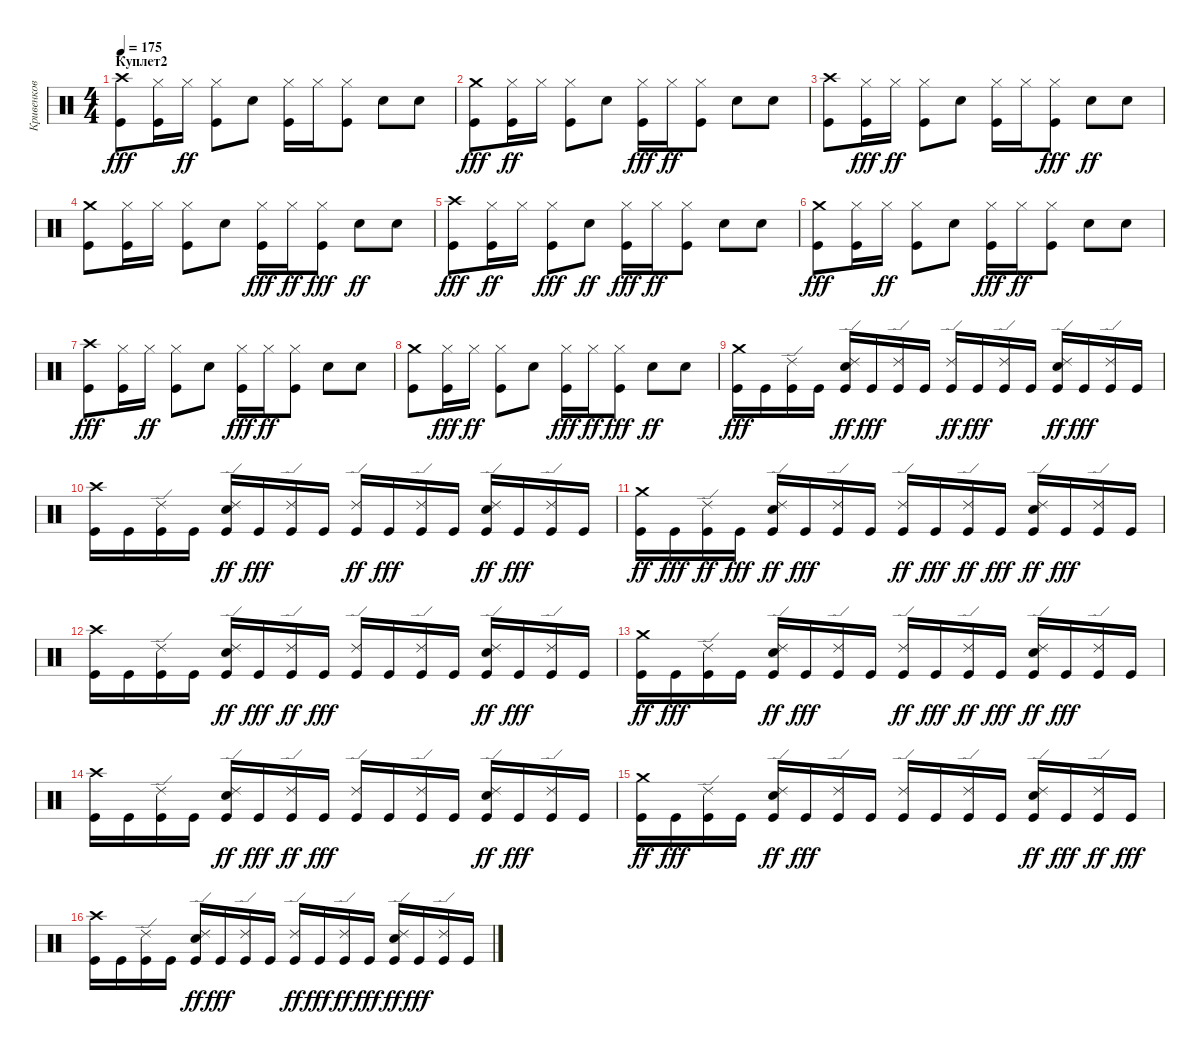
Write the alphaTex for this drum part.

\track ("Кривенков" "Кривенков") {instrument percussion}
\staff {score}
\articulation defaults
\ts (4 4)
\section ("" "Куплет2")
\tempo 175
\clef neutral
\ks c
("Crash high (hit)" "Kick (hit)").8{dy fff} ("Hi-Hat (closed)" "Kick (hit)").16 "Hi-Hat (closed)".16{dy ff} ("Kick (hit)" "Hi-Hat (closed)").8 "Snare (hit) 2".8 ("Kick (hit)" "Hi-Hat (closed)").16 "Hi-Hat (closed)".16 ("Kick (hit)" "Hi-Hat (closed)").8 "Snare (hit) 2".8 "Snare (hit) 2".8 |
("Crash medium (hit)" "Kick (hit)").8{dy fff} ("Kick (hit)" "Hi-Hat (closed)").16{dy ff} "Hi-Hat (closed)".16 ("Kick (hit)" "Hi-Hat (closed)").8 "Snare (hit) 2".8 ("Hi-Hat (closed)" "Kick (hit)").16{dy fff} "Hi-Hat (closed)".16{dy ff} ("Kick (hit)" "Hi-Hat (closed)").8 "Snare (hit) 2".8 "Snare (hit) 2".8 |
("Kick (hit)" "Crash high (hit)").8 ("Hi-Hat (closed)" "Kick (hit)").16{dy fff} "Hi-Hat (closed)".16{dy ff} ("Kick (hit)" "Hi-Hat (closed)").8 "Snare (hit) 2".8 ("Kick (hit)" "Hi-Hat (closed)").16 "Hi-Hat (closed)".16 ("Hi-Hat (closed)" "Kick (hit)").8{dy fff} "Snare (hit) 2".8{dy ff} "Snare (hit) 2".8 |
("Kick (hit)" "Crash medium (hit)").8 ("Kick (hit)" "Hi-Hat (closed)").16 "Hi-Hat (closed)".16 ("Kick (hit)" "Hi-Hat (closed)").8 "Snare (hit) 2".8 ("Hi-Hat (closed)" "Kick (hit)").16{dy fff} "Hi-Hat (closed)".16{dy ff} ("Hi-Hat (closed)" "Kick (hit)").8{dy fff} "Snare (hit) 2".8{dy ff} "Snare (hit) 2".8 |
("Crash high (hit)" "Kick (hit)").8{dy fff} ("Kick (hit)" "Hi-Hat (closed)").16{dy ff} "Hi-Hat (closed)".16 ("Hi-Hat (closed)" "Kick (hit)").8{dy fff} "Snare (hit) 2".8{dy ff} ("Hi-Hat (closed)" "Kick (hit)").16{dy fff} "Hi-Hat (closed)".16{dy ff} ("Kick (hit)" "Hi-Hat (closed)").8 "Snare (hit) 2".8 "Snare (hit) 2".8 |
("Crash medium (hit)" "Kick (hit)").8{dy fff} ("Hi-Hat (closed)" "Kick (hit)").16 "Hi-Hat (closed)".16{dy ff} ("Kick (hit)" "Hi-Hat (closed)").8 "Snare (hit) 2".8 ("Hi-Hat (closed)" "Kick (hit)").16{dy fff} "Hi-Hat (closed)".16{dy ff} ("Kick (hit)" "Hi-Hat (closed)").8 "Snare (hit) 2".8 "Snare (hit) 2".8 |
("Crash high (hit)" "Kick (hit)").8{dy fff} ("Hi-Hat (closed)" "Kick (hit)").16 "Hi-Hat (closed)".16{dy ff} ("Kick (hit)" "Hi-Hat (closed)").8 "Snare (hit) 2".8 ("Hi-Hat (closed)" "Kick (hit)").16{dy fff} "Hi-Hat (closed)".16{dy ff} ("Kick (hit)" "Hi-Hat (closed)").8 "Snare (hit) 2".8 "Snare (hit) 2".8 |
("Kick (hit)" "Crash medium (hit)").8 ("Hi-Hat (closed)" "Kick (hit)").16{dy fff} "Hi-Hat (closed)".16{dy ff} ("Kick (hit)" "Hi-Hat (closed)").8 "Snare (hit) 2".8 ("Hi-Hat (closed)" "Kick (hit)").16{dy fff} "Hi-Hat (closed)".16{dy ff} ("Hi-Hat (closed)" "Kick (hit)").8{dy fff} "Snare (hit) 2".8{dy ff} "Snare (hit) 2".8 |
("Crash medium (hit)" "Kick (hit)").16{dy fff} "Kick (hit)".16 ("Ride (edge) 2" "Kick (hit)").16 "Kick (hit)".16 ("Ride (edge) 2" "Kick (hit)" "Snare (hit) 2").16{dy ff} "Kick (hit)".16{dy fff} ("Ride (edge) 2" "Kick (hit)").16 "Kick (hit)".16 ("Kick (hit)" "Ride (edge) 2").16{dy ff} "Kick (hit)".16{dy fff} ("Ride (edge) 2" "Kick (hit)").16 "Kick (hit)".16 ("Ride (edge) 2" "Kick (hit)" "Snare (hit) 2").16{dy ff} "Kick (hit)".16{dy fff} ("Ride (edge) 2" "Kick (hit)").16 "Kick (hit)".16 |
("Crash high (hit)" "Kick (hit)").16 "Kick (hit)".16 ("Ride (edge) 2" "Kick (hit)").16 "Kick (hit)".16 ("Ride (edge) 2" "Kick (hit)" "Snare (hit) 2").16{dy ff} "Kick (hit)".16{dy fff} ("Ride (edge) 2" "Kick (hit)").16 "Kick (hit)".16 ("Kick (hit)" "Ride (edge) 2").16{dy ff} "Kick (hit)".16{dy fff} ("Ride (edge) 2" "Kick (hit)").16 "Kick (hit)".16 ("Ride (edge) 2" "Kick (hit)" "Snare (hit) 2").16{dy ff} "Kick (hit)".16{dy fff} ("Ride (edge) 2" "Kick (hit)").16 "Kick (hit)".16 |
("Kick (hit)" "Crash medium (hit)").16{dy ff} "Kick (hit)".16{dy fff} ("Kick (hit)" "Ride (edge) 2").16{dy ff} "Kick (hit)".16{dy fff} ("Kick (hit)" "Ride (edge) 2" "Snare (hit) 2").16{dy ff} "Kick (hit)".16{dy fff} ("Ride (edge) 2" "Kick (hit)").16 "Kick (hit)".16 ("Kick (hit)" "Ride (edge) 2").16{dy ff} "Kick (hit)".16{dy fff} ("Kick (hit)" "Ride (edge) 2").16{dy ff} "Kick (hit)".16{dy fff} ("Kick (hit)" "Ride (edge) 2" "Snare (hit) 2").16{dy ff} "Kick (hit)".16{dy fff} ("Ride (edge) 2" "Kick (hit)").16 "Kick (hit)".16 |
("Kick (hit)" "Crash high (hit)").16 "Kick (hit)".16 ("Ride (edge) 2" "Kick (hit)").16 "Kick (hit)".16 ("Ride (edge) 2" "Kick (hit)" "Snare (hit) 2").16{dy ff} "Kick (hit)".16{dy fff} ("Kick (hit)" "Ride (edge) 2").16{dy ff} "Kick (hit)".16{dy fff} ("Ride (edge) 2" "Kick (hit)").16 "Kick (hit)".16 ("Ride (edge) 2" "Kick (hit)").16 "Kick (hit)".16 ("Kick (hit)" "Ride (edge) 2" "Snare (hit) 2").16{dy ff} "Kick (hit)".16{dy fff} ("Ride (edge) 2" "Kick (hit)").16 "Kick (hit)".16 |
("Kick (hit)" "Crash medium (hit)").16{dy ff} "Kick (hit)".16{dy fff} ("Ride (edge) 2" "Kick (hit)").16 "Kick (hit)".16 ("Kick (hit)" "Ride (edge) 2" "Snare (hit) 2").16{dy ff} "Kick (hit)".16{dy fff} ("Ride (edge) 2" "Kick (hit)").16 "Kick (hit)".16 ("Kick (hit)" "Ride (edge) 2").16{dy ff} "Kick (hit)".16{dy fff} ("Kick (hit)" "Ride (edge) 2").16{dy ff} "Kick (hit)".16{dy fff} ("Kick (hit)" "Ride (edge) 2" "Snare (hit) 2").16{dy ff} "Kick (hit)".16{dy fff} ("Ride (edge) 2" "Kick (hit)").16 "Kick (hit)".16 |
("Kick (hit)" "Crash high (hit)").16 "Kick (hit)".16 ("Ride (edge) 2" "Kick (hit)").16 "Kick (hit)".16 ("Ride (edge) 2" "Kick (hit)" "Snare (hit) 2").16{dy ff} "Kick (hit)".16{dy fff} ("Kick (hit)" "Ride (edge) 2").16{dy ff} "Kick (hit)".16{dy fff} ("Ride (edge) 2" "Kick (hit)").16 "Kick (hit)".16 ("Ride (edge) 2" "Kick (hit)").16 "Kick (hit)".16 ("Kick (hit)" "Ride (edge) 2" "Snare (hit) 2").16{dy ff} "Kick (hit)".16{dy fff} ("Ride (edge) 2" "Kick (hit)").16 "Kick (hit)".16 |
("Kick (hit)" "Crash medium (hit)").16{dy ff} "Kick (hit)".16{dy fff} ("Ride (edge) 2" "Kick (hit)").16 "Kick (hit)".16 ("Ride (edge) 2" "Kick (hit)" "Snare (hit) 2").16{dy ff} "Kick (hit)".16{dy fff} ("Ride (edge) 2" "Kick (hit)").16 "Kick (hit)".16 ("Ride (edge) 2" "Kick (hit)").16 "Kick (hit)".16 ("Ride (edge) 2" "Kick (hit)").16 "Kick (hit)".16 ("Ride (edge) 2" "Kick (hit)" "Snare (hit) 2").16{dy ff} "Kick (hit)".16{dy fff} ("Kick (hit)" "Ride (edge) 2").16{dy ff} "Kick (hit)".16{dy fff} |
("Crash high (hit)" "Kick (hit)").16 "Kick (hit)".16 ("Ride (edge) 2" "Kick (hit)").16 "Kick (hit)".16 ("Kick (hit)" "Ride (edge) 2" "Snare (hit) 2").16{dy ff} "Kick (hit)".16{dy fff} ("Ride (edge) 2" "Kick (hit)").16 "Kick (hit)".16 ("Kick (hit)" "Ride (edge) 2").16{dy ff} "Kick (hit)".16{dy fff} ("Kick (hit)" "Ride (edge) 2").16{dy ff} "Kick (hit)".16{dy fff} ("Ride (edge) 2" "Kick (hit)" "Snare (hit) 2").16{dy ff} "Kick (hit)".16{dy fff} ("Ride (edge) 2" "Kick (hit)").16 "Kick (hit)".16
